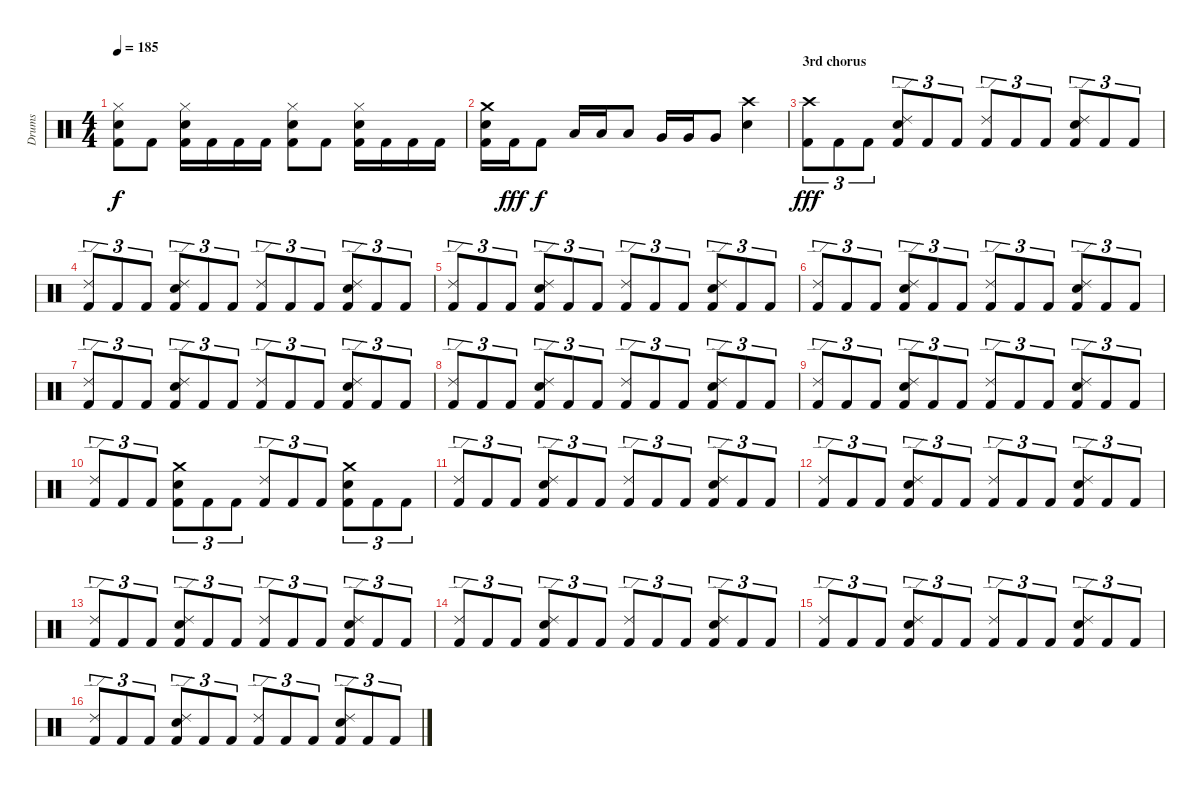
\track ("Drums" "Drums") {instrument percussion}
\staff {score}
\articulation defaults
\ts (4 4)
\tempo 185
\clef neutral
\ks c
("Kick (hit) 2" "Snare (hit) 2" "Hi-Hat (closed)").8{dy f} "Kick (hit) 2".8 ("Kick (hit) 2" "Snare (hit) 2" "Hi-Hat (closed)").16 "Kick (hit) 2".16 "Kick (hit) 2".16 "Kick (hit) 2".16 ("Kick (hit) 2" "Snare (hit) 2" "Hi-Hat (closed)").8 "Kick (hit) 2".8 ("Kick (hit) 2" "Snare (hit) 2" "Hi-Hat (closed)").16 "Kick (hit) 2".16 "Kick (hit) 2".16 "Kick (hit) 2".16 |
("Kick (hit) 2" "Snare (hit) 2" "Crash medium (hit)").16 "Kick (hit) 2".16{dy fff} "Kick (hit) 2".8{dy f} "Low Tom (hit)".16 "Low Tom (hit)".16 "Low Tom (hit)".8 "Very Low Tom (hit)".16 "Very Low Tom (hit)".16 "Very Low Tom (hit)".8 ("Snare (hit) 2" "Crash high (hit)").4 |
\section ("" "3rd chorus")
("Kick (hit) 2" "Crash high (hit)").8{tu (3 2) dy fff} "Kick (hit) 2".8{tu (3 2)} "Kick (hit) 2".8{tu (3 2)} ("Kick (hit) 2" "Snare (hit) 2" "Ride (edge) 2").8{tu (3 2)} "Kick (hit) 2".8{tu (3 2)} "Kick (hit) 2".8{tu (3 2)} ("Kick (hit) 2" "Ride (edge) 2").8{tu (3 2)} "Kick (hit) 2".8{tu (3 2)} "Kick (hit) 2".8{tu (3 2)} ("Kick (hit) 2" "Snare (hit) 2" "Ride (edge) 2").8{tu (3 2)} "Kick (hit) 2".8{tu (3 2)} "Kick (hit) 2".8{tu (3 2)} |
("Kick (hit) 2" "Ride (edge) 2").8{tu (3 2)} "Kick (hit) 2".8{tu (3 2)} "Kick (hit) 2".8{tu (3 2)} ("Kick (hit) 2" "Snare (hit) 2" "Ride (edge) 2").8{tu (3 2)} "Kick (hit) 2".8{tu (3 2)} "Kick (hit) 2".8{tu (3 2)} ("Kick (hit) 2" "Ride (edge) 2").8{tu (3 2)} "Kick (hit) 2".8{tu (3 2)} "Kick (hit) 2".8{tu (3 2)} ("Kick (hit) 2" "Snare (hit) 2" "Ride (edge) 2").8{tu (3 2)} "Kick (hit) 2".8{tu (3 2)} "Kick (hit) 2".8{tu (3 2)} |
("Kick (hit) 2" "Ride (edge) 2").8{tu (3 2)} "Kick (hit) 2".8{tu (3 2)} "Kick (hit) 2".8{tu (3 2)} ("Kick (hit) 2" "Snare (hit) 2" "Ride (edge) 2").8{tu (3 2)} "Kick (hit) 2".8{tu (3 2)} "Kick (hit) 2".8{tu (3 2)} ("Kick (hit) 2" "Ride (edge) 2").8{tu (3 2)} "Kick (hit) 2".8{tu (3 2)} "Kick (hit) 2".8{tu (3 2)} ("Kick (hit) 2" "Snare (hit) 2" "Ride (edge) 2").8{tu (3 2)} "Kick (hit) 2".8{tu (3 2)} "Kick (hit) 2".8{tu (3 2)} |
("Kick (hit) 2" "Ride (edge) 2").8{tu (3 2)} "Kick (hit) 2".8{tu (3 2)} "Kick (hit) 2".8{tu (3 2)} ("Kick (hit) 2" "Snare (hit) 2" "Ride (edge) 2").8{tu (3 2)} "Kick (hit) 2".8{tu (3 2)} "Kick (hit) 2".8{tu (3 2)} ("Kick (hit) 2" "Ride (edge) 2").8{tu (3 2)} "Kick (hit) 2".8{tu (3 2)} "Kick (hit) 2".8{tu (3 2)} ("Kick (hit) 2" "Snare (hit) 2" "Ride (edge) 2").8{tu (3 2)} "Kick (hit) 2".8{tu (3 2)} "Kick (hit) 2".8{tu (3 2)} |
("Kick (hit) 2" "Ride (edge) 2").8{tu (3 2)} "Kick (hit) 2".8{tu (3 2)} "Kick (hit) 2".8{tu (3 2)} ("Kick (hit) 2" "Snare (hit) 2" "Ride (edge) 2").8{tu (3 2)} "Kick (hit) 2".8{tu (3 2)} "Kick (hit) 2".8{tu (3 2)} ("Kick (hit) 2" "Ride (edge) 2").8{tu (3 2)} "Kick (hit) 2".8{tu (3 2)} "Kick (hit) 2".8{tu (3 2)} ("Kick (hit) 2" "Snare (hit) 2" "Ride (edge) 2").8{tu (3 2)} "Kick (hit) 2".8{tu (3 2)} "Kick (hit) 2".8{tu (3 2)} |
("Kick (hit) 2" "Ride (edge) 2").8{tu (3 2)} "Kick (hit) 2".8{tu (3 2)} "Kick (hit) 2".8{tu (3 2)} ("Kick (hit) 2" "Snare (hit) 2" "Ride (edge) 2").8{tu (3 2)} "Kick (hit) 2".8{tu (3 2)} "Kick (hit) 2".8{tu (3 2)} ("Kick (hit) 2" "Ride (edge) 2").8{tu (3 2)} "Kick (hit) 2".8{tu (3 2)} "Kick (hit) 2".8{tu (3 2)} ("Kick (hit) 2" "Snare (hit) 2" "Ride (edge) 2").8{tu (3 2)} "Kick (hit) 2".8{tu (3 2)} "Kick (hit) 2".8{tu (3 2)} |
("Kick (hit) 2" "Ride (edge) 2").8{tu (3 2)} "Kick (hit) 2".8{tu (3 2)} "Kick (hit) 2".8{tu (3 2)} ("Kick (hit) 2" "Snare (hit) 2" "Ride (edge) 2").8{tu (3 2)} "Kick (hit) 2".8{tu (3 2)} "Kick (hit) 2".8{tu (3 2)} ("Kick (hit) 2" "Ride (edge) 2").8{tu (3 2)} "Kick (hit) 2".8{tu (3 2)} "Kick (hit) 2".8{tu (3 2)} ("Kick (hit) 2" "Snare (hit) 2" "Ride (edge) 2").8{tu (3 2)} "Kick (hit) 2".8{tu (3 2)} "Kick (hit) 2".8{tu (3 2)} |
("Kick (hit) 2" "Ride (edge) 2").8{tu (3 2)} "Kick (hit) 2".8{tu (3 2)} "Kick (hit) 2".8{tu (3 2)} ("Kick (hit) 2" "Snare (hit) 2" "Crash medium (hit)").8{tu (3 2)} "Kick (hit) 2".8{tu (3 2)} "Kick (hit) 2".8{tu (3 2)} ("Kick (hit) 2" "Ride (edge) 2").8{tu (3 2)} "Kick (hit) 2".8{tu (3 2)} "Kick (hit) 2".8{tu (3 2)} ("Kick (hit) 2" "Snare (hit) 2" "Crash medium (hit)").8{tu (3 2)} "Kick (hit) 2".8{tu (3 2)} "Kick (hit) 2".8{tu (3 2)} |
("Kick (hit) 2" "Ride (edge) 2").8{tu (3 2)} "Kick (hit) 2".8{tu (3 2)} "Kick (hit) 2".8{tu (3 2)} ("Kick (hit) 2" "Snare (hit) 2" "Ride (edge) 2").8{tu (3 2)} "Kick (hit) 2".8{tu (3 2)} "Kick (hit) 2".8{tu (3 2)} ("Kick (hit) 2" "Ride (edge) 2").8{tu (3 2)} "Kick (hit) 2".8{tu (3 2)} "Kick (hit) 2".8{tu (3 2)} ("Kick (hit) 2" "Snare (hit) 2" "Ride (edge) 2").8{tu (3 2)} "Kick (hit) 2".8{tu (3 2)} "Kick (hit) 2".8{tu (3 2)} |
("Kick (hit) 2" "Ride (edge) 2").8{tu (3 2)} "Kick (hit) 2".8{tu (3 2)} "Kick (hit) 2".8{tu (3 2)} ("Kick (hit) 2" "Snare (hit) 2" "Ride (edge) 2").8{tu (3 2)} "Kick (hit) 2".8{tu (3 2)} "Kick (hit) 2".8{tu (3 2)} ("Kick (hit) 2" "Ride (edge) 2").8{tu (3 2)} "Kick (hit) 2".8{tu (3 2)} "Kick (hit) 2".8{tu (3 2)} ("Kick (hit) 2" "Snare (hit) 2" "Ride (edge) 2").8{tu (3 2)} "Kick (hit) 2".8{tu (3 2)} "Kick (hit) 2".8{tu (3 2)} |
("Kick (hit) 2" "Ride (edge) 2").8{tu (3 2)} "Kick (hit) 2".8{tu (3 2)} "Kick (hit) 2".8{tu (3 2)} ("Kick (hit) 2" "Snare (hit) 2" "Ride (edge) 2").8{tu (3 2)} "Kick (hit) 2".8{tu (3 2)} "Kick (hit) 2".8{tu (3 2)} ("Kick (hit) 2" "Ride (edge) 2").8{tu (3 2)} "Kick (hit) 2".8{tu (3 2)} "Kick (hit) 2".8{tu (3 2)} ("Kick (hit) 2" "Snare (hit) 2" "Ride (edge) 2").8{tu (3 2)} "Kick (hit) 2".8{tu (3 2)} "Kick (hit) 2".8{tu (3 2)} |
("Kick (hit) 2" "Ride (edge) 2").8{tu (3 2)} "Kick (hit) 2".8{tu (3 2)} "Kick (hit) 2".8{tu (3 2)} ("Kick (hit) 2" "Snare (hit) 2" "Ride (edge) 2").8{tu (3 2)} "Kick (hit) 2".8{tu (3 2)} "Kick (hit) 2".8{tu (3 2)} ("Kick (hit) 2" "Ride (edge) 2").8{tu (3 2)} "Kick (hit) 2".8{tu (3 2)} "Kick (hit) 2".8{tu (3 2)} ("Kick (hit) 2" "Snare (hit) 2" "Ride (edge) 2").8{tu (3 2)} "Kick (hit) 2".8{tu (3 2)} "Kick (hit) 2".8{tu (3 2)} |
("Kick (hit) 2" "Ride (edge) 2").8{tu (3 2)} "Kick (hit) 2".8{tu (3 2)} "Kick (hit) 2".8{tu (3 2)} ("Kick (hit) 2" "Snare (hit) 2" "Ride (edge) 2").8{tu (3 2)} "Kick (hit) 2".8{tu (3 2)} "Kick (hit) 2".8{tu (3 2)} ("Kick (hit) 2" "Ride (edge) 2").8{tu (3 2)} "Kick (hit) 2".8{tu (3 2)} "Kick (hit) 2".8{tu (3 2)} ("Kick (hit) 2" "Snare (hit) 2" "Ride (edge) 2").8{tu (3 2)} "Kick (hit) 2".8{tu (3 2)} "Kick (hit) 2".8{tu (3 2)} |
("Kick (hit) 2" "Ride (edge) 2").8{tu (3 2)} "Kick (hit) 2".8{tu (3 2)} "Kick (hit) 2".8{tu (3 2)} ("Kick (hit) 2" "Snare (hit) 2" "Ride (edge) 2").8{tu (3 2)} "Kick (hit) 2".8{tu (3 2)} "Kick (hit) 2".8{tu (3 2)} ("Kick (hit) 2" "Ride (edge) 2").8{tu (3 2)} "Kick (hit) 2".8{tu (3 2)} "Kick (hit) 2".8{tu (3 2)} ("Kick (hit) 2" "Snare (hit) 2" "Ride (edge) 2").8{tu (3 2)} "Kick (hit) 2".8{tu (3 2)} "Kick (hit) 2".8{tu (3 2)}
